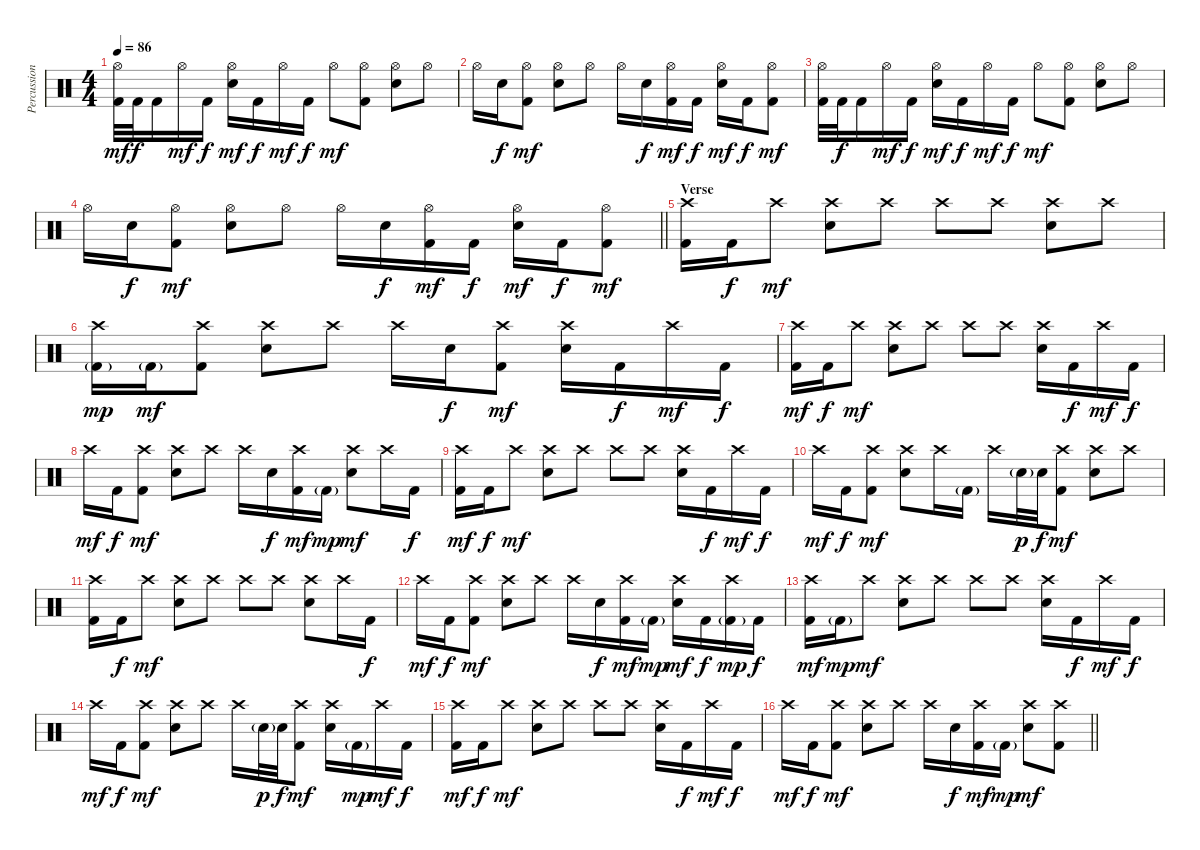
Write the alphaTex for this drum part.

\track ("Percussion" "Percussion") {instrument percussion}
\staff {score}
\articulation defaults
\ts (4 4)
\tempo 86
\clef neutral
\ks c
("Hi-Hat (open)" "Kick (hit) 2").32{dy mf} "Kick (hit) 2".32{dy f} "Kick (hit) 2".16 "Hi-Hat (open)".16{dy mf} "Kick (hit) 2".16{dy f} ("Hi-Hat (open)" "Electric Snare (hit)").16{dy mf} "Kick (hit) 2".16{dy f} "Hi-Hat (open)".16{dy mf} "Kick (hit) 2".16{dy f} "Hi-Hat (open)".8{dy mf} ("Hi-Hat (open)" "Kick (hit) 2").8 ("Hi-Hat (open)" "Electric Snare (hit)").8 "Hi-Hat (open)".8 |
"Hi-Hat (open)".16 "Electric Snare (hit)".16{dy f} ("Hi-Hat (open)" "Kick (hit) 2").8{dy mf} ("Hi-Hat (open)" "Electric Snare (hit)").8 "Hi-Hat (open)".8 "Hi-Hat (open)".16 "Electric Snare (hit)".16{dy f} ("Hi-Hat (open)" "Kick (hit) 2").16{dy mf} "Kick (hit) 2".16{dy f} ("Hi-Hat (open)" "Electric Snare (hit)").16{dy mf} "Kick (hit) 2".16{dy f} ("Hi-Hat (open)" "Kick (hit) 2").8{dy mf} |
("Hi-Hat (open)" "Kick (hit) 2").32 "Kick (hit) 2".32{dy f} "Kick (hit) 2".16 "Hi-Hat (open)".16{dy mf} "Kick (hit) 2".16{dy f} ("Hi-Hat (open)" "Electric Snare (hit)").16{dy mf} "Kick (hit) 2".16{dy f} "Hi-Hat (open)".16{dy mf} "Kick (hit) 2".16{dy f} "Hi-Hat (open)".8{dy mf} ("Hi-Hat (open)" "Kick (hit) 2").8 ("Hi-Hat (open)" "Electric Snare (hit)").8 "Hi-Hat (open)".8 |
\barLineRight lightlight "Hi-Hat (open)".16 "Electric Snare (hit)".16{dy f}
("Hi-Hat (open)" "Kick (hit) 2").8{dy mf} ("Hi-Hat (open)" "Electric Snare (hit)").8 "Hi-Hat (open)".8 "Hi-Hat (open)".16 "Electric Snare (hit)".16{dy f} ("Hi-Hat (open)" "Kick (hit) 2").16{dy mf} "Kick (hit) 2".16{dy f} ("Hi-Hat (open)" "Electric Snare (hit)").16{dy mf} "Kick (hit) 2".16{dy f} ("Hi-Hat (open)" "Kick (hit) 2").8{dy mf} |
\section ("" "Verse ")
("Crash high (hit)" "Kick (hit) 2").16 "Kick (hit) 2".16{dy f} "Crash high (hit)".8{dy mf} ("Crash high (hit)" "Electric Snare (hit)").8 "Crash high (hit)".8 "Crash high (hit)".8 "Crash high (hit)".8 ("Crash high (hit)" "Electric Snare (hit)").8 "Crash high (hit)".8 |
("Crash high (hit)" "Kick (hit) 2"{g}).16{dy mp} "Kick (hit) 2"{g}.16{dy mf} ("Crash high (hit)" "Kick (hit) 2").8 ("Crash high (hit)" "Electric Snare (hit)").8 "Crash high (hit)".8 "Crash high (hit)".16 "Electric Snare (hit)".16{dy f} ("Crash high (hit)" "Kick (hit) 2").8{dy mf} ("Crash high (hit)" "Electric Snare (hit)").16 "Kick (hit) 2".16{dy f} "Crash high (hit)".16{dy mf} "Kick (hit) 2".16{dy f} |
("Crash high (hit)" "Kick (hit) 2").16{dy mf} "Kick (hit) 2".16{dy f} "Crash high (hit)".8{dy mf} ("Crash high (hit)" "Electric Snare (hit)").8 "Crash high (hit)".8 "Crash high (hit)".8 "Crash high (hit)".8 ("Crash high (hit)" "Electric Snare (hit)").16 "Kick (hit) 2".16{dy f} "Crash high (hit)".16{dy mf} "Kick (hit) 2".16{dy f} |
"Crash high (hit)".16{dy mf} "Kick (hit) 2".16{dy f} ("Crash high (hit)" "Kick (hit) 2").8{dy mf} ("Crash high (hit)" "Electric Snare (hit)").8 "Crash high (hit)".8 "Crash high (hit)".16 "Electric Snare (hit)".16{dy f} ("Crash high (hit)" "Kick (hit) 2").16{dy mf} "Kick (hit) 2"{g}.16{dy mp} ("Crash high (hit)" "Electric Snare (hit)").8{dy mf} "Crash high (hit)".16 "Kick (hit) 2".16{dy f} |
("Crash high (hit)" "Kick (hit) 2").16{dy mf} "Kick (hit) 2".16{dy f} "Crash high (hit)".8{dy mf} ("Crash high (hit)" "Electric Snare (hit)").8 "Crash high (hit)".8 "Crash high (hit)".8 "Crash high (hit)".8 ("Crash high (hit)" "Electric Snare (hit)").16 "Kick (hit) 2".16{dy f} "Crash high (hit)".16{dy mf} "Kick (hit) 2".16{dy f} |
"Crash high (hit)".16{dy mf} "Kick (hit) 2".16{dy f} ("Crash high (hit)" "Kick (hit) 2").8{dy mf} ("Crash high (hit)" "Electric Snare (hit)").8 "Crash high (hit)".16 "Kick (hit) 2"{g}.16 "Crash high (hit)".16 "Electric Snare (hit)"{g}.32{dy p} "Electric Snare (hit)".32{dy f} ("Crash high (hit)" "Kick (hit) 2").8{dy mf} ("Crash high (hit)" "Electric Snare (hit)").8 "Crash high (hit)".8 |
("Crash high (hit)" "Kick (hit) 2").16 "Kick (hit) 2".16{dy f} "Crash high (hit)".8{dy mf} ("Crash high (hit)" "Electric Snare (hit)").8 "Crash high (hit)".8 "Crash high (hit)".8 "Crash high (hit)".8 ("Crash high (hit)" "Electric Snare (hit)").8 "Crash high (hit)".16 "Kick (hit) 2".16{dy f} |
"Crash high (hit)".16{dy mf} "Kick (hit) 2".16{dy f} ("Crash high (hit)" "Kick (hit) 2").8{dy mf} ("Crash high (hit)" "Electric Snare (hit)").8 "Crash high (hit)".8 "Crash high (hit)".16 "Electric Snare (hit)".16{dy f} ("Crash high (hit)" "Kick (hit) 2").16{dy mf} "Kick (hit) 2"{g}.16{dy mp} ("Crash high (hit)" "Electric Snare (hit)").16{dy mf} "Kick (hit) 2".16{dy f} ("Crash high (hit)" "Kick (hit) 2"{g}).16{dy mp} "Kick (hit) 2".16{dy f} |
("Crash high (hit)" "Kick (hit) 2").16{dy mf} "Kick (hit) 2"{g}.16{dy mp} "Crash high (hit)".8{dy mf} ("Crash high (hit)" "Electric Snare (hit)").8 "Crash high (hit)".8 "Crash high (hit)".8 "Crash high (hit)".8 ("Crash high (hit)" "Electric Snare (hit)").16 "Kick (hit) 2".16{dy f} "Crash high (hit)".16{dy mf} "Kick (hit) 2".16{dy f} |
"Crash high (hit)".16{dy mf} "Kick (hit) 2".16{dy f} ("Crash high (hit)" "Kick (hit) 2").8{dy mf} ("Crash high (hit)" "Electric Snare (hit)").8 "Crash high (hit)".8 "Crash high (hit)".16 "Electric Snare (hit)"{g}.32{dy p} "Electric Snare (hit)".32{dy f} ("Crash high (hit)" "Kick (hit) 2").8{dy mf} ("Crash high (hit)" "Electric Snare (hit)").16 "Kick (hit) 2"{g}.16{dy mp} "Crash high (hit)".16{dy mf} "Kick (hit) 2".16{dy f} |
("Crash high (hit)" "Kick (hit) 2").16{dy mf} "Kick (hit) 2".16{dy f} "Crash high (hit)".8{dy mf} ("Crash high (hit)" "Electric Snare (hit)").8 "Crash high (hit)".8 "Crash high (hit)".8 "Crash high (hit)".8 ("Crash high (hit)" "Electric Snare (hit)").16 "Kick (hit) 2".16{dy f} "Crash high (hit)".16{dy mf} "Kick (hit) 2".16{dy f} |
\barLineRight lightlight "Crash high (hit)".16{dy mf} "Kick (hit) 2".16{dy f}
("Crash high (hit)" "Kick (hit) 2").8{dy mf} ("Crash high (hit)" "Electric Snare (hit)").8 "Crash high (hit)".8 "Crash high (hit)".16 "Electric Snare (hit)".16{dy f} ("Crash high (hit)" "Kick (hit) 2").16{dy mf} "Kick (hit) 2"{g}.16{dy mp} ("Crash high (hit)" "Electric Snare (hit)").8{dy mf} ("Crash high (hit)" "Kick (hit) 2").8
